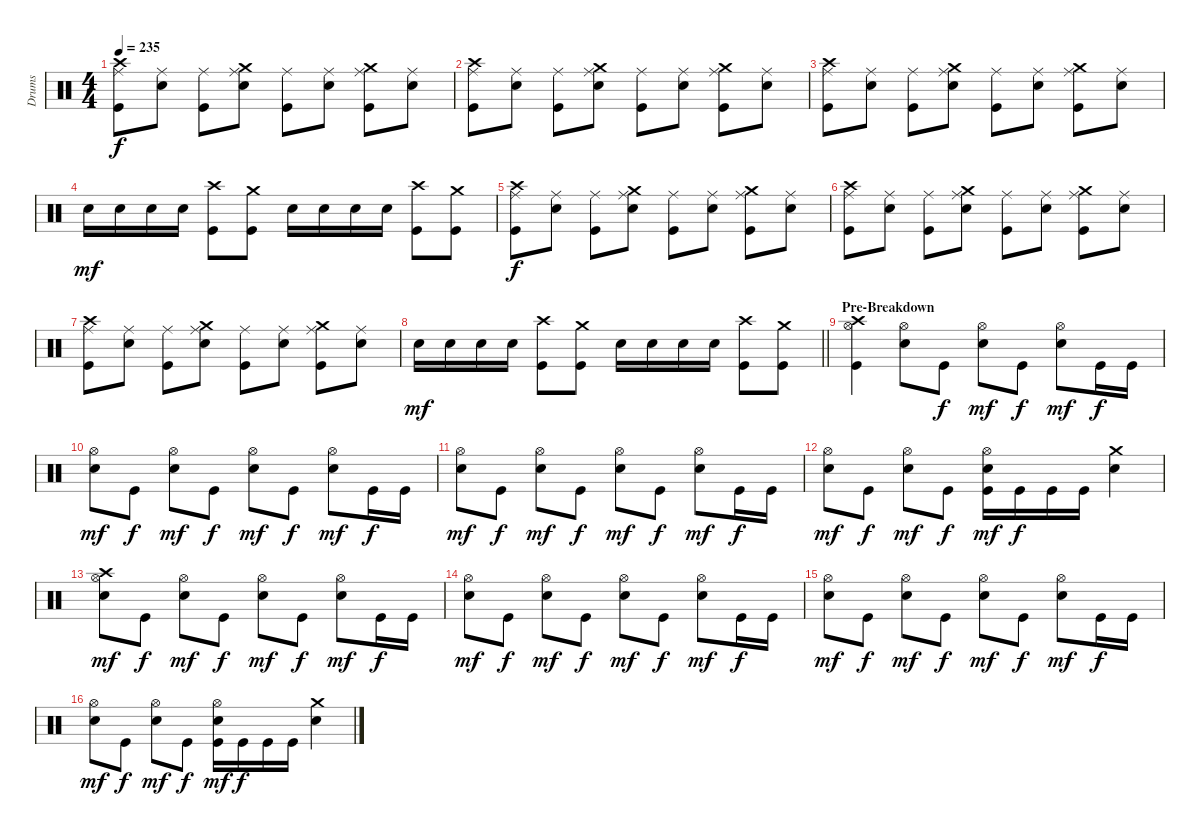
\track ("Drums" "Drums") {instrument percussion}
\staff {score}
\articulation defaults
\ts (4 4)
\tempo 235
\clef neutral
\ks c
("Crash high (hit)" "Ride (middle)" "Kick (hit)").8{dy f} ("Ride (middle)" "Electric Snare (hit)").8 ("Ride (middle)" "Kick (hit)").8 ("Crash medium (hit)" "Ride (middle)" "Electric Snare (hit)").8 ("Ride (middle)" "Kick (hit)").8 ("Ride (middle)" "Electric Snare (hit)").8 ("Crash medium (hit)" "Ride (middle)" "Kick (hit)").8 ("Ride (middle)" "Electric Snare (hit)").8 |
("Crash high (hit)" "Ride (middle)" "Kick (hit)").8 ("Ride (middle)" "Electric Snare (hit)").8 ("Ride (middle)" "Kick (hit)").8 ("Crash medium (hit)" "Ride (middle)" "Electric Snare (hit)").8 ("Ride (middle)" "Kick (hit)").8 ("Ride (middle)" "Electric Snare (hit)").8 ("Crash medium (hit)" "Ride (middle)" "Kick (hit)").8 ("Ride (middle)" "Electric Snare (hit)").8 |
("Crash high (hit)" "Ride (middle)" "Kick (hit)").8 ("Ride (middle)" "Electric Snare (hit)").8 ("Ride (middle)" "Kick (hit)").8 ("Crash medium (hit)" "Ride (middle)" "Electric Snare (hit)").8 ("Ride (middle)" "Kick (hit)").8 ("Ride (middle)" "Electric Snare (hit)").8 ("Crash medium (hit)" "Ride (middle)" "Kick (hit)").8 ("Ride (middle)" "Electric Snare (hit)").8 |
"Electric Snare (hit)".16{dy mf} "Electric Snare (hit)".16 "Electric Snare (hit)".16 "Electric Snare (hit)".16 ("Crash high (hit)" "Kick (hit)").8 ("Crash medium (hit)" "Kick (hit)").8 "Electric Snare (hit)".16 "Electric Snare (hit)".16 "Electric Snare (hit)".16 "Electric Snare (hit)".16 ("Crash high (hit)" "Kick (hit)").8 ("Crash medium (hit)" "Kick (hit)").8 |
("Crash high (hit)" "Ride (middle)" "Kick (hit)").8{dy f} ("Ride (middle)" "Electric Snare (hit)").8 ("Ride (middle)" "Kick (hit)").8 ("Crash medium (hit)" "Ride (middle)" "Electric Snare (hit)").8 ("Ride (middle)" "Kick (hit)").8 ("Ride (middle)" "Electric Snare (hit)").8 ("Crash medium (hit)" "Ride (middle)" "Kick (hit)").8 ("Ride (middle)" "Electric Snare (hit)").8 |
("Crash high (hit)" "Ride (middle)" "Kick (hit)").8 ("Ride (middle)" "Electric Snare (hit)").8 ("Ride (middle)" "Kick (hit)").8 ("Crash medium (hit)" "Ride (middle)" "Electric Snare (hit)").8 ("Ride (middle)" "Kick (hit)").8 ("Ride (middle)" "Electric Snare (hit)").8 ("Crash medium (hit)" "Ride (middle)" "Kick (hit)").8 ("Ride (middle)" "Electric Snare (hit)").8 |
("Crash high (hit)" "Ride (middle)" "Kick (hit)").8 ("Ride (middle)" "Electric Snare (hit)").8 ("Ride (middle)" "Kick (hit)").8 ("Crash medium (hit)" "Ride (middle)" "Electric Snare (hit)").8 ("Ride (middle)" "Kick (hit)").8 ("Ride (middle)" "Electric Snare (hit)").8 ("Crash medium (hit)" "Ride (middle)" "Kick (hit)").8 ("Ride (middle)" "Electric Snare (hit)").8 |
\barLineRight lightlight "Electric Snare (hit)".16{dy mf} "Electric Snare (hit)".16 "Electric Snare (hit)".16 "Electric Snare (hit)".16
("Crash high (hit)" "Kick (hit)").8 ("Crash medium (hit)" "Kick (hit)").8 "Electric Snare (hit)".16 "Electric Snare (hit)".16 "Electric Snare (hit)".16 "Electric Snare (hit)".16 ("Crash high (hit)" "Kick (hit)").8 ("Crash medium (hit)" "Kick (hit)").8 |
\section ("" "Pre-Breakdown")
("Crash high (hit)" "Hi-Hat (open)" "Kick (hit)").4 ("Hi-Hat (open)" "Electric Snare (hit)").8 "Kick (hit)".8{dy f} ("Hi-Hat (open)" "Electric Snare (hit)").8{dy mf} "Kick (hit)".8{dy f} ("Hi-Hat (open)" "Electric Snare (hit)").8{dy mf} "Kick (hit)".16{dy f} "Kick (hit)".16 |
("Hi-Hat (open)" "Electric Snare (hit)").8{dy mf} "Kick (hit)".8{dy f} ("Hi-Hat (open)" "Electric Snare (hit)").8{dy mf} "Kick (hit)".8{dy f} ("Hi-Hat (open)" "Electric Snare (hit)").8{dy mf} "Kick (hit)".8{dy f} ("Hi-Hat (open)" "Electric Snare (hit)").8{dy mf} "Kick (hit)".16{dy f} "Kick (hit)".16 |
("Hi-Hat (open)" "Electric Snare (hit)").8{dy mf} "Kick (hit)".8{dy f} ("Hi-Hat (open)" "Electric Snare (hit)").8{dy mf} "Kick (hit)".8{dy f} ("Hi-Hat (open)" "Electric Snare (hit)").8{dy mf} "Kick (hit)".8{dy f} ("Hi-Hat (open)" "Electric Snare (hit)").8{dy mf} "Kick (hit)".16{dy f} "Kick (hit)".16 |
("Hi-Hat (open)" "Electric Snare (hit)").8{dy mf} "Kick (hit)".8{dy f} ("Hi-Hat (open)" "Electric Snare (hit)").8{dy mf} "Kick (hit)".8{dy f} ("Hi-Hat (open)" "Electric Snare (hit)" "Kick (hit)").16{dy mf} "Kick (hit)".16{dy f} "Kick (hit)".16 "Kick (hit)".16 ("Crash medium (hit)" "Electric Snare (hit)").4 |
("Crash high (hit)" "Hi-Hat (open)" "Electric Snare (hit)").8{dy mf} "Kick (hit)".8{dy f} ("Hi-Hat (open)" "Electric Snare (hit)").8{dy mf} "Kick (hit)".8{dy f} ("Hi-Hat (open)" "Electric Snare (hit)").8{dy mf} "Kick (hit)".8{dy f} ("Hi-Hat (open)" "Electric Snare (hit)").8{dy mf} "Kick (hit)".16{dy f} "Kick (hit)".16 |
("Hi-Hat (open)" "Electric Snare (hit)").8{dy mf} "Kick (hit)".8{dy f} ("Hi-Hat (open)" "Electric Snare (hit)").8{dy mf} "Kick (hit)".8{dy f} ("Hi-Hat (open)" "Electric Snare (hit)").8{dy mf} "Kick (hit)".8{dy f} ("Hi-Hat (open)" "Electric Snare (hit)").8{dy mf} "Kick (hit)".16{dy f} "Kick (hit)".16 |
("Hi-Hat (open)" "Electric Snare (hit)").8{dy mf} "Kick (hit)".8{dy f} ("Hi-Hat (open)" "Electric Snare (hit)").8{dy mf} "Kick (hit)".8{dy f} ("Hi-Hat (open)" "Electric Snare (hit)").8{dy mf} "Kick (hit)".8{dy f} ("Hi-Hat (open)" "Electric Snare (hit)").8{dy mf} "Kick (hit)".16{dy f} "Kick (hit)".16 |
("Hi-Hat (open)" "Electric Snare (hit)").8{dy mf} "Kick (hit)".8{dy f} ("Hi-Hat (open)" "Electric Snare (hit)").8{dy mf} "Kick (hit)".8{dy f} ("Hi-Hat (open)" "Electric Snare (hit)" "Kick (hit)").16{dy mf} "Kick (hit)".16{dy f} "Kick (hit)".16 "Kick (hit)".16 ("Crash medium (hit)" "Electric Snare (hit)").4
